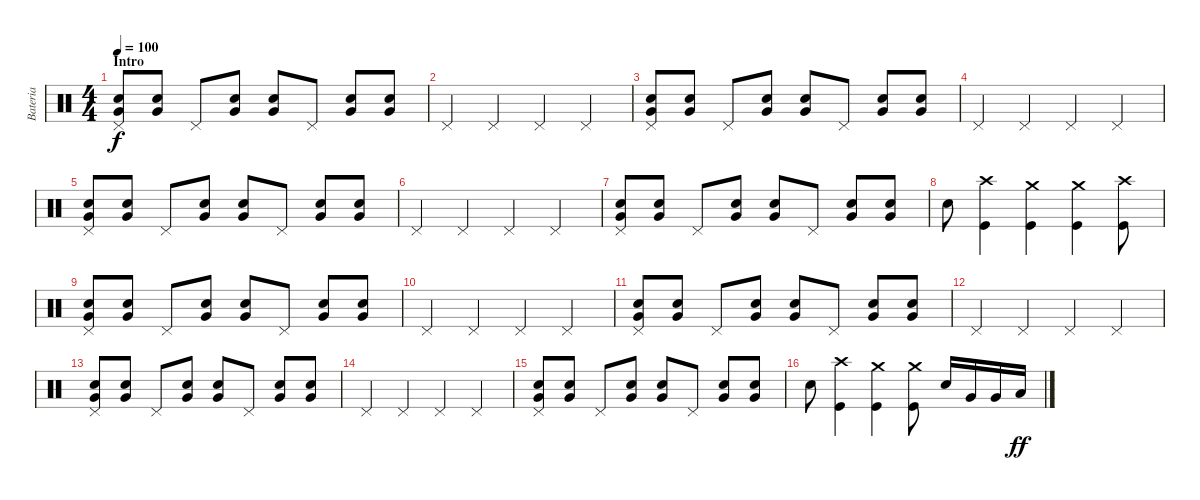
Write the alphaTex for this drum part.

\track ("Bateria" "Bateria") {instrument percussion}
\staff {score}
\articulation defaults
\ts (4 4)
\section ("" "Intro")
\tempo 100
\clef neutral
\ks c
("Very Low Tom (hit)" "Electric Snare (hit)" "Pedal Hi-Hat (hit)").8{dy f} ("Very Low Tom (hit)" "Electric Snare (hit)").8 "Pedal Hi-Hat (hit)".8 ("Very Low Tom (hit)" "Electric Snare (hit)").8 ("Very Low Tom (hit)" "Electric Snare (hit)").8 "Pedal Hi-Hat (hit)".8 ("Very Low Tom (hit)" "Electric Snare (hit)").8 ("Very Low Tom (hit)" "Electric Snare (hit)").8 |
"Pedal Hi-Hat (hit)".4 "Pedal Hi-Hat (hit)".4 "Pedal Hi-Hat (hit)".4 "Pedal Hi-Hat (hit)".4 |
("Very Low Tom (hit)" "Electric Snare (hit)" "Pedal Hi-Hat (hit)").8 ("Very Low Tom (hit)" "Electric Snare (hit)").8 "Pedal Hi-Hat (hit)".8 ("Very Low Tom (hit)" "Electric Snare (hit)").8 ("Very Low Tom (hit)" "Electric Snare (hit)").8 "Pedal Hi-Hat (hit)".8 ("Very Low Tom (hit)" "Electric Snare (hit)").8 ("Very Low Tom (hit)" "Electric Snare (hit)").8 |
"Pedal Hi-Hat (hit)".4 "Pedal Hi-Hat (hit)".4 "Pedal Hi-Hat (hit)".4 "Pedal Hi-Hat (hit)".4 |
("Very Low Tom (hit)" "Electric Snare (hit)" "Pedal Hi-Hat (hit)").8 ("Very Low Tom (hit)" "Electric Snare (hit)").8 "Pedal Hi-Hat (hit)".8 ("Very Low Tom (hit)" "Electric Snare (hit)").8 ("Very Low Tom (hit)" "Electric Snare (hit)").8 "Pedal Hi-Hat (hit)".8 ("Very Low Tom (hit)" "Electric Snare (hit)").8 ("Very Low Tom (hit)" "Electric Snare (hit)").8 |
"Pedal Hi-Hat (hit)".4 "Pedal Hi-Hat (hit)".4 "Pedal Hi-Hat (hit)".4 "Pedal Hi-Hat (hit)".4 |
("Very Low Tom (hit)" "Electric Snare (hit)" "Pedal Hi-Hat (hit)").8 ("Very Low Tom (hit)" "Electric Snare (hit)").8 "Pedal Hi-Hat (hit)".8 ("Very Low Tom (hit)" "Electric Snare (hit)").8 ("Very Low Tom (hit)" "Electric Snare (hit)").8 "Pedal Hi-Hat (hit)".8 ("Very Low Tom (hit)" "Electric Snare (hit)").8 ("Very Low Tom (hit)" "Electric Snare (hit)").8 |
"Electric Snare (hit)".8 ("Crash high (hit)" "Kick (hit)").4 ("Crash medium (hit)" "Kick (hit)").4 ("Crash medium (hit)" "Kick (hit)").4 ("Crash high (hit)" "Kick (hit)").8 |
("Very Low Tom (hit)" "Electric Snare (hit)" "Pedal Hi-Hat (hit)").8 ("Very Low Tom (hit)" "Electric Snare (hit)").8 "Pedal Hi-Hat (hit)".8 ("Very Low Tom (hit)" "Electric Snare (hit)").8 ("Very Low Tom (hit)" "Electric Snare (hit)").8 "Pedal Hi-Hat (hit)".8 ("Very Low Tom (hit)" "Electric Snare (hit)").8 ("Very Low Tom (hit)" "Electric Snare (hit)").8 |
"Pedal Hi-Hat (hit)".4 "Pedal Hi-Hat (hit)".4 "Pedal Hi-Hat (hit)".4 "Pedal Hi-Hat (hit)".4 |
("Very Low Tom (hit)" "Electric Snare (hit)" "Pedal Hi-Hat (hit)").8 ("Very Low Tom (hit)" "Electric Snare (hit)").8 "Pedal Hi-Hat (hit)".8 ("Very Low Tom (hit)" "Electric Snare (hit)").8 ("Very Low Tom (hit)" "Electric Snare (hit)").8 "Pedal Hi-Hat (hit)".8 ("Very Low Tom (hit)" "Electric Snare (hit)").8 ("Very Low Tom (hit)" "Electric Snare (hit)").8 |
"Pedal Hi-Hat (hit)".4 "Pedal Hi-Hat (hit)".4 "Pedal Hi-Hat (hit)".4 "Pedal Hi-Hat (hit)".4 |
("Very Low Tom (hit)" "Electric Snare (hit)" "Pedal Hi-Hat (hit)").8 ("Very Low Tom (hit)" "Electric Snare (hit)").8 "Pedal Hi-Hat (hit)".8 ("Very Low Tom (hit)" "Electric Snare (hit)").8 ("Very Low Tom (hit)" "Electric Snare (hit)").8 "Pedal Hi-Hat (hit)".8 ("Very Low Tom (hit)" "Electric Snare (hit)").8 ("Very Low Tom (hit)" "Electric Snare (hit)").8 |
"Pedal Hi-Hat (hit)".4 "Pedal Hi-Hat (hit)".4 "Pedal Hi-Hat (hit)".4 "Pedal Hi-Hat (hit)".4 |
("Very Low Tom (hit)" "Electric Snare (hit)" "Pedal Hi-Hat (hit)").8 ("Very Low Tom (hit)" "Electric Snare (hit)").8 "Pedal Hi-Hat (hit)".8 ("Very Low Tom (hit)" "Electric Snare (hit)").8 ("Very Low Tom (hit)" "Electric Snare (hit)").8 "Pedal Hi-Hat (hit)".8 ("Very Low Tom (hit)" "Electric Snare (hit)").8 ("Very Low Tom (hit)" "Electric Snare (hit)").8 |
"Electric Snare (hit)".8 ("Crash high (hit)" "Kick (hit)").4 ("Crash medium (hit)" "Kick (hit)").4 ("Crash medium (hit)" "Kick (hit)").8 "Electric Snare (hit)".16 "Very Low Tom (hit)".16 "Very Low Tom (hit)".16 "Low Floor Tom (hit)".16{dy ff}
